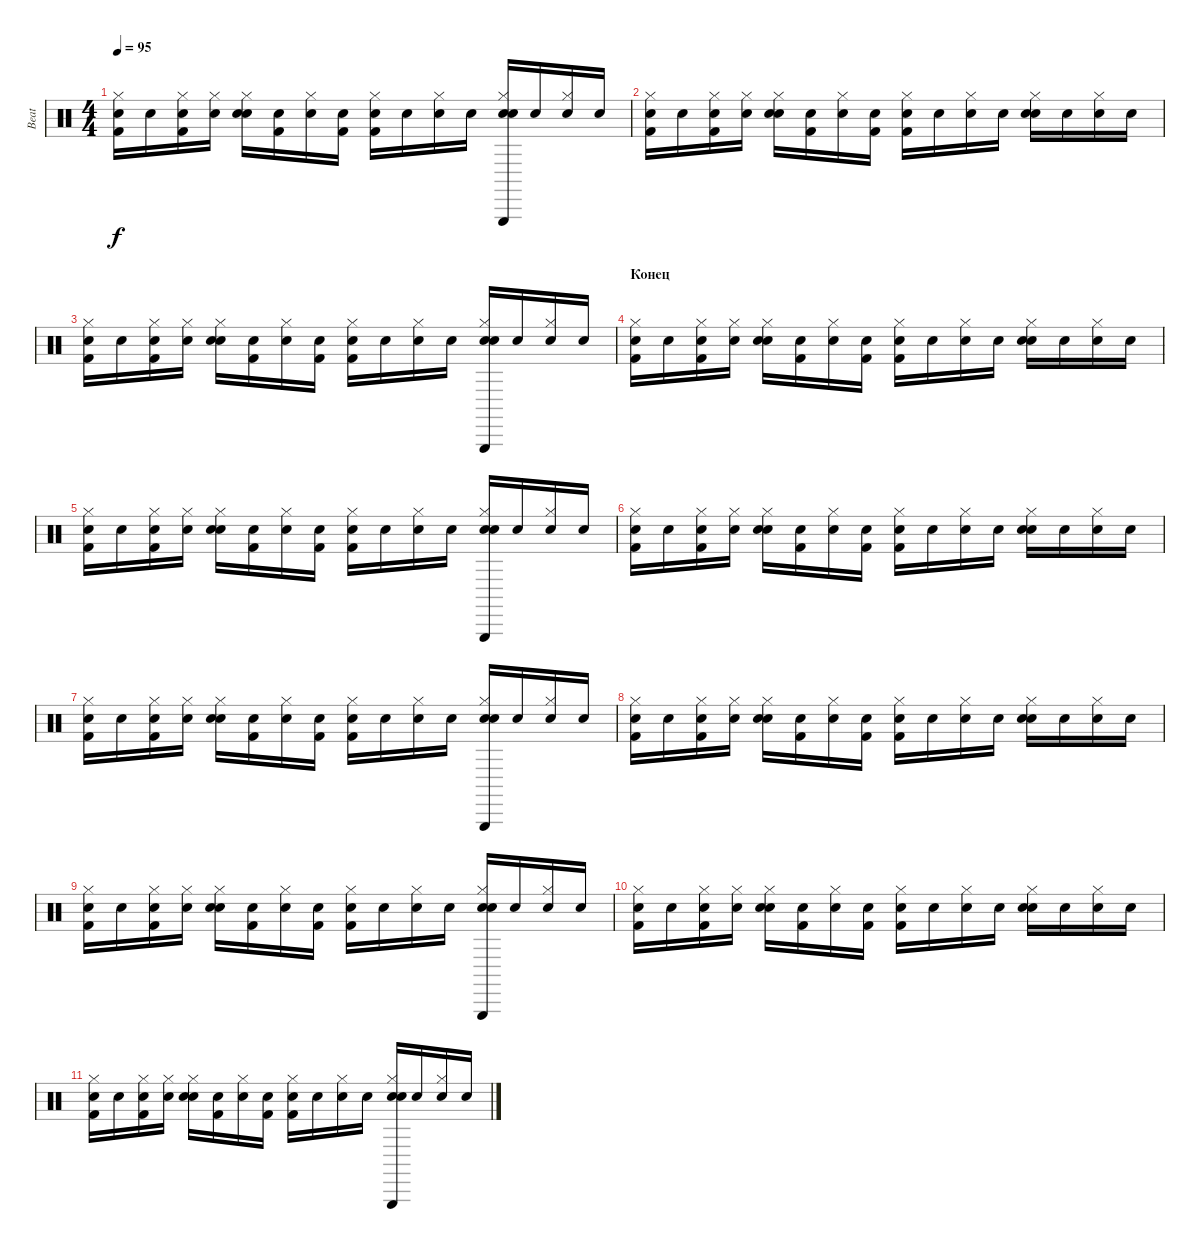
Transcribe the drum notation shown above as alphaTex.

\track ("Beat" "Beat") {instrument percussion}
\staff {score}
\articulation defaults
\ts (4 4)
\tempo 95
\clef neutral
\ks c
("Snare (hit)"{x} "Kick (hit) 2" "Hi-Hat (closed)").16{dy f} "Snare (hit)"{x}.16 ("Snare (hit)"{x} "Kick (hit) 2" "Hi-Hat (closed)").16 ("Snare (hit)"{x} "Hi-Hat (closed)").16 ("Snare (hit)"{x} "Electric Snare (hit)" "Hi-Hat (closed)").16 ("Snare (hit)"{x} "Kick (hit) 2").16 ("Snare (hit)"{x} "Hi-Hat (closed)").16 ("Snare (hit)"{x} "Kick (hit) 2").16 ("Snare (hit)"{x} "Kick (hit) 2" "Hi-Hat (closed)").16 "Snare (hit)"{x}.16 ("Snare (hit)"{x} "Hi-Hat (closed)").16 "Snare (hit)"{x}.16 ("Snare (hit)"{x} "Triangle (hit)" "Electric Snare (hit)" "Hi-Hat (closed)").16 "Snare (hit)"{x}.16 ("Snare (hit)"{x} "Hi-Hat (closed)").16 "Snare (hit)"{x}.16 |
("Snare (hit)"{x} "Kick (hit) 2" "Hi-Hat (closed)").16 "Snare (hit)"{x}.16 ("Snare (hit)"{x} "Kick (hit) 2" "Hi-Hat (closed)").16 ("Snare (hit)"{x} "Hi-Hat (closed)").16 ("Snare (hit)"{x} "Electric Snare (hit)" "Hi-Hat (closed)").16 ("Snare (hit)"{x} "Kick (hit) 2").16 ("Snare (hit)"{x} "Hi-Hat (closed)").16 ("Snare (hit)"{x} "Kick (hit) 2").16 ("Snare (hit)"{x} "Kick (hit) 2" "Hi-Hat (closed)").16 "Snare (hit)"{x}.16 ("Snare (hit)"{x} "Hi-Hat (closed)").16 "Snare (hit)"{x}.16 ("Snare (hit)"{x} "Electric Snare (hit)" "Hi-Hat (closed)").16 "Snare (hit)"{x}.16 ("Snare (hit)"{x} "Hi-Hat (closed)").16 "Snare (hit)"{x}.16 |
("Snare (hit)"{x} "Kick (hit) 2" "Hi-Hat (closed)").16 "Snare (hit)"{x}.16 ("Snare (hit)"{x} "Kick (hit) 2" "Hi-Hat (closed)").16 ("Snare (hit)"{x} "Hi-Hat (closed)").16 ("Snare (hit)"{x} "Electric Snare (hit)" "Hi-Hat (closed)").16 ("Snare (hit)"{x} "Kick (hit) 2").16 ("Snare (hit)"{x} "Hi-Hat (closed)").16 ("Snare (hit)"{x} "Kick (hit) 2").16 ("Snare (hit)"{x} "Kick (hit) 2" "Hi-Hat (closed)").16 "Snare (hit)"{x}.16 ("Snare (hit)"{x} "Hi-Hat (closed)").16 "Snare (hit)"{x}.16 ("Snare (hit)"{x} "Triangle (hit)" "Electric Snare (hit)" "Hi-Hat (closed)").16 "Snare (hit)"{x}.16 ("Snare (hit)"{x} "Hi-Hat (closed)").16 "Snare (hit)"{x}.16 |
\section ("" "Конец")
("Snare (hit)"{x} "Kick (hit) 2" "Hi-Hat (closed)").16 "Snare (hit)"{x}.16 ("Snare (hit)"{x} "Kick (hit) 2" "Hi-Hat (closed)").16 ("Snare (hit)"{x} "Hi-Hat (closed)").16 ("Snare (hit)"{x} "Electric Snare (hit)" "Hi-Hat (closed)").16 ("Snare (hit)"{x} "Kick (hit) 2").16 ("Snare (hit)"{x} "Hi-Hat (closed)").16 ("Snare (hit)"{x} "Kick (hit) 2").16 ("Snare (hit)"{x} "Kick (hit) 2" "Hi-Hat (closed)").16 "Snare (hit)"{x}.16 ("Snare (hit)"{x} "Hi-Hat (closed)").16 "Snare (hit)"{x}.16 ("Snare (hit)"{x} "Electric Snare (hit)" "Hi-Hat (closed)").16 "Snare (hit)"{x}.16 ("Snare (hit)"{x} "Hi-Hat (closed)").16 "Snare (hit)"{x}.16 |
("Snare (hit)"{x} "Kick (hit) 2" "Hi-Hat (closed)").16 "Snare (hit)"{x}.16 ("Snare (hit)"{x} "Kick (hit) 2" "Hi-Hat (closed)").16 ("Snare (hit)"{x} "Hi-Hat (closed)").16 ("Snare (hit)"{x} "Electric Snare (hit)" "Hi-Hat (closed)").16 ("Snare (hit)"{x} "Kick (hit) 2").16 ("Snare (hit)"{x} "Hi-Hat (closed)").16 ("Snare (hit)"{x} "Kick (hit) 2").16 ("Snare (hit)"{x} "Kick (hit) 2" "Hi-Hat (closed)").16 "Snare (hit)"{x}.16 ("Snare (hit)"{x} "Hi-Hat (closed)").16 "Snare (hit)"{x}.16 ("Snare (hit)"{x} "Triangle (hit)" "Electric Snare (hit)" "Hi-Hat (closed)").16 "Snare (hit)"{x}.16 ("Snare (hit)"{x} "Hi-Hat (closed)").16 "Snare (hit)"{x}.16 |
("Snare (hit)"{x} "Kick (hit) 2" "Hi-Hat (closed)").16 "Snare (hit)"{x}.16 ("Snare (hit)"{x} "Kick (hit) 2" "Hi-Hat (closed)").16 ("Snare (hit)"{x} "Hi-Hat (closed)").16 ("Snare (hit)"{x} "Electric Snare (hit)" "Hi-Hat (closed)").16 ("Snare (hit)"{x} "Kick (hit) 2").16 ("Snare (hit)"{x} "Hi-Hat (closed)").16 ("Snare (hit)"{x} "Kick (hit) 2").16 ("Snare (hit)"{x} "Kick (hit) 2" "Hi-Hat (closed)").16 "Snare (hit)"{x}.16 ("Snare (hit)"{x} "Hi-Hat (closed)").16 "Snare (hit)"{x}.16 ("Snare (hit)"{x} "Electric Snare (hit)" "Hi-Hat (closed)").16 "Snare (hit)"{x}.16 ("Snare (hit)"{x} "Hi-Hat (closed)").16 "Snare (hit)"{x}.16 |
("Snare (hit)"{x} "Kick (hit) 2" "Hi-Hat (closed)").16 "Snare (hit)"{x}.16 ("Snare (hit)"{x} "Kick (hit) 2" "Hi-Hat (closed)").16 ("Snare (hit)"{x} "Hi-Hat (closed)").16 ("Snare (hit)"{x} "Electric Snare (hit)" "Hi-Hat (closed)").16 ("Snare (hit)"{x} "Kick (hit) 2").16 ("Snare (hit)"{x} "Hi-Hat (closed)").16 ("Snare (hit)"{x} "Kick (hit) 2").16 ("Snare (hit)"{x} "Kick (hit) 2" "Hi-Hat (closed)").16 "Snare (hit)"{x}.16 ("Snare (hit)"{x} "Hi-Hat (closed)").16 "Snare (hit)"{x}.16 ("Snare (hit)"{x} "Triangle (hit)" "Electric Snare (hit)" "Hi-Hat (closed)").16 "Snare (hit)"{x}.16 ("Snare (hit)"{x} "Hi-Hat (closed)").16 "Snare (hit)"{x}.16 |
("Snare (hit)"{x} "Kick (hit) 2" "Hi-Hat (closed)").16 "Snare (hit)"{x}.16 ("Snare (hit)"{x} "Kick (hit) 2" "Hi-Hat (closed)").16 ("Snare (hit)"{x} "Hi-Hat (closed)").16 ("Snare (hit)"{x} "Electric Snare (hit)" "Hi-Hat (closed)").16 ("Snare (hit)"{x} "Kick (hit) 2").16 ("Snare (hit)"{x} "Hi-Hat (closed)").16 ("Snare (hit)"{x} "Kick (hit) 2").16 ("Snare (hit)"{x} "Kick (hit) 2" "Hi-Hat (closed)").16 "Snare (hit)"{x}.16 ("Snare (hit)"{x} "Hi-Hat (closed)").16 "Snare (hit)"{x}.16 ("Snare (hit)"{x} "Electric Snare (hit)" "Hi-Hat (closed)").16 "Snare (hit)"{x}.16 ("Snare (hit)"{x} "Hi-Hat (closed)").16 "Snare (hit)"{x}.16 |
("Snare (hit)"{x} "Kick (hit) 2" "Hi-Hat (closed)").16 "Snare (hit)"{x}.16 ("Snare (hit)"{x} "Kick (hit) 2" "Hi-Hat (closed)").16 ("Snare (hit)"{x} "Hi-Hat (closed)").16 ("Snare (hit)"{x} "Electric Snare (hit)" "Hi-Hat (closed)").16 ("Snare (hit)"{x} "Kick (hit) 2").16 ("Snare (hit)"{x} "Hi-Hat (closed)").16 ("Snare (hit)"{x} "Kick (hit) 2").16 ("Snare (hit)"{x} "Kick (hit) 2" "Hi-Hat (closed)").16 "Snare (hit)"{x}.16 ("Snare (hit)"{x} "Hi-Hat (closed)").16 "Snare (hit)"{x}.16 ("Snare (hit)"{x} "Triangle (hit)" "Electric Snare (hit)" "Hi-Hat (closed)").16 "Snare (hit)"{x}.16 ("Snare (hit)"{x} "Hi-Hat (closed)").16 "Snare (hit)"{x}.16 |
("Snare (hit)"{x} "Kick (hit) 2" "Hi-Hat (closed)").16 "Snare (hit)"{x}.16 ("Snare (hit)"{x} "Kick (hit) 2" "Hi-Hat (closed)").16 ("Snare (hit)"{x} "Hi-Hat (closed)").16 ("Snare (hit)"{x} "Electric Snare (hit)" "Hi-Hat (closed)").16 ("Snare (hit)"{x} "Kick (hit) 2").16 ("Snare (hit)"{x} "Hi-Hat (closed)").16 ("Snare (hit)"{x} "Kick (hit) 2").16 ("Snare (hit)"{x} "Kick (hit) 2" "Hi-Hat (closed)").16 "Snare (hit)"{x}.16 ("Snare (hit)"{x} "Hi-Hat (closed)").16 "Snare (hit)"{x}.16 ("Snare (hit)"{x} "Electric Snare (hit)" "Hi-Hat (closed)").16 "Snare (hit)"{x}.16 ("Snare (hit)"{x} "Hi-Hat (closed)").16 "Snare (hit)"{x}.16 |
("Snare (hit)"{x} "Kick (hit) 2" "Hi-Hat (closed)").16 "Snare (hit)"{x}.16 ("Snare (hit)"{x} "Kick (hit) 2" "Hi-Hat (closed)").16 ("Snare (hit)"{x} "Hi-Hat (closed)").16 ("Snare (hit)"{x} "Electric Snare (hit)" "Hi-Hat (closed)").16 ("Snare (hit)"{x} "Kick (hit) 2").16 ("Snare (hit)"{x} "Hi-Hat (closed)").16 ("Snare (hit)"{x} "Kick (hit) 2").16 ("Snare (hit)"{x} "Kick (hit) 2" "Hi-Hat (closed)").16 "Snare (hit)"{x}.16 ("Snare (hit)"{x} "Hi-Hat (closed)").16 "Snare (hit)"{x}.16 ("Snare (hit)"{x} "Triangle (hit)" "Electric Snare (hit)" "Hi-Hat (closed)").16 "Snare (hit)"{x}.16 ("Snare (hit)"{x} "Hi-Hat (closed)").16 "Snare (hit)"{x}.16
